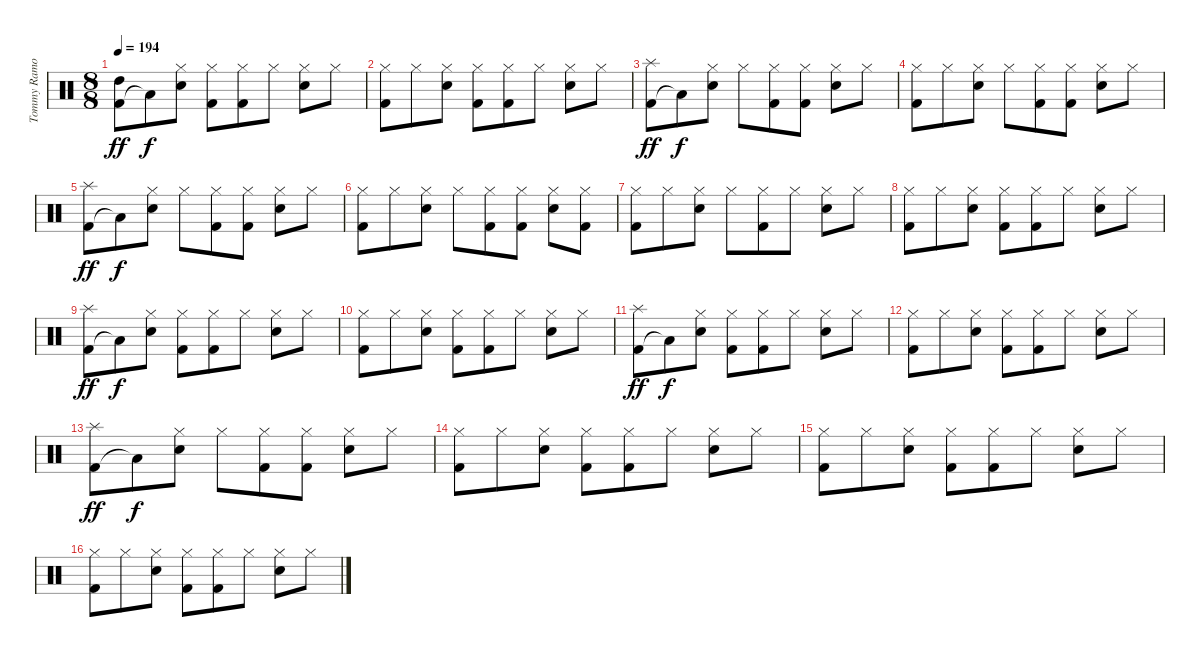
\track ("Tommy Ramone - Drums" "Tommy Ramo") {instrument percussion}
\staff {score}
\articulation defaults
\ts (8 8)
\tempo 194
\clef neutral
\ks c
("Kick (hit) 2" "High Tom (hit)").8{dy ff} "Low Floor Tom (hit)"{t}.8{dy f} ("Electric Snare (hit)" "Hi-Hat (closed)").8 ("Kick (hit) 2" "Hi-Hat (closed)").8 ("Kick (hit) 2" "Hi-Hat (closed)").8 "Hi-Hat (closed)".8 ("Electric Snare (hit)" "Hi-Hat (closed)").8 "Hi-Hat (closed)".8 |
("Kick (hit) 2" "Hi-Hat (closed)").8 "Hi-Hat (closed)".8 ("Electric Snare (hit)" "Hi-Hat (closed)").8 ("Kick (hit) 2" "Hi-Hat (closed)").8 ("Kick (hit) 2" "Hi-Hat (closed)").8 "Hi-Hat (closed)".8 ("Electric Snare (hit)" "Hi-Hat (closed)").8 "Hi-Hat (closed)".8 |
("Kick (hit) 2" "Splash (hit)").8{dy ff} "Low Floor Tom (hit)"{t}.8{dy f} ("Electric Snare (hit)" "Hi-Hat (closed)").8 "Hi-Hat (closed)".8 ("Kick (hit) 2" "Hi-Hat (closed)").8 ("Kick (hit) 2" "Hi-Hat (closed)").8 ("Electric Snare (hit)" "Hi-Hat (closed)").8 "Hi-Hat (closed)".8 |
("Kick (hit) 2" "Hi-Hat (closed)").8 "Hi-Hat (closed)".8 ("Electric Snare (hit)" "Hi-Hat (closed)").8 "Hi-Hat (closed)".8 ("Kick (hit) 2" "Hi-Hat (closed)").8 ("Kick (hit) 2" "Hi-Hat (closed)").8 ("Electric Snare (hit)" "Hi-Hat (closed)").8 "Hi-Hat (closed)".8 |
("Kick (hit) 2" "Splash (hit)").8{dy ff} "Low Floor Tom (hit)"{t}.8{dy f} ("Electric Snare (hit)" "Hi-Hat (closed)").8 "Hi-Hat (closed)".8 ("Kick (hit) 2" "Hi-Hat (closed)").8 ("Kick (hit) 2" "Hi-Hat (closed)").8 ("Electric Snare (hit)" "Hi-Hat (closed)").8 "Hi-Hat (closed)".8 |
("Kick (hit) 2" "Hi-Hat (closed)").8 "Hi-Hat (closed)".8 ("Electric Snare (hit)" "Hi-Hat (closed)").8 "Hi-Hat (closed)".8 ("Kick (hit) 2" "Hi-Hat (closed)").8 ("Kick (hit) 2" "Hi-Hat (closed)").8 ("Electric Snare (hit)" "Hi-Hat (closed)").8 ("Kick (hit) 2" "Hi-Hat (closed)").8 |
("Kick (hit) 2" "Hi-Hat (closed)").8 "Hi-Hat (closed)".8 ("Electric Snare (hit)" "Hi-Hat (closed)").8 "Hi-Hat (closed)".8 ("Kick (hit) 2" "Hi-Hat (closed)").8 "Hi-Hat (closed)".8 ("Electric Snare (hit)" "Hi-Hat (closed)").8 "Hi-Hat (closed)".8 |
("Kick (hit) 2" "Hi-Hat (closed)").8 "Hi-Hat (closed)".8 ("Electric Snare (hit)" "Hi-Hat (closed)").8 ("Kick (hit) 2" "Hi-Hat (closed)").8 ("Kick (hit) 2" "Hi-Hat (closed)").8 "Hi-Hat (closed)".8 ("Electric Snare (hit)" "Hi-Hat (closed)").8 "Hi-Hat (closed)".8 |
("Kick (hit) 2" "Splash (hit)").8{dy ff} "Low Floor Tom (hit)"{t}.8{dy f} ("Electric Snare (hit)" "Hi-Hat (closed)").8 ("Kick (hit) 2" "Hi-Hat (closed)").8 ("Kick (hit) 2" "Hi-Hat (closed)").8 "Hi-Hat (closed)".8 ("Electric Snare (hit)" "Hi-Hat (closed)").8 "Hi-Hat (closed)".8 |
("Kick (hit) 2" "Hi-Hat (closed)").8 "Hi-Hat (closed)".8 ("Electric Snare (hit)" "Hi-Hat (closed)").8 ("Kick (hit) 2" "Hi-Hat (closed)").8 ("Kick (hit) 2" "Hi-Hat (closed)").8 "Hi-Hat (closed)".8 ("Electric Snare (hit)" "Hi-Hat (closed)").8 "Hi-Hat (closed)".8 |
("Kick (hit) 2" "Splash (hit)").8{dy ff} "Low Floor Tom (hit)"{t}.8{dy f} ("Electric Snare (hit)" "Hi-Hat (closed)").8 ("Kick (hit) 2" "Hi-Hat (closed)").8 ("Kick (hit) 2" "Hi-Hat (closed)").8 "Hi-Hat (closed)".8 ("Electric Snare (hit)" "Hi-Hat (closed)").8 "Hi-Hat (closed)".8 |
("Kick (hit) 2" "Hi-Hat (closed)").8 "Hi-Hat (closed)".8 ("Electric Snare (hit)" "Hi-Hat (closed)").8 ("Kick (hit) 2" "Hi-Hat (closed)").8 ("Kick (hit) 2" "Hi-Hat (closed)").8 "Hi-Hat (closed)".8 ("Electric Snare (hit)" "Hi-Hat (closed)").8 "Hi-Hat (closed)".8 |
("Kick (hit) 2" "Splash (hit)").8{dy ff} "Low Floor Tom (hit)"{t}.8{dy f} ("Electric Snare (hit)" "Hi-Hat (closed)").8 "Hi-Hat (closed)".8 ("Kick (hit) 2" "Hi-Hat (closed)").8 ("Kick (hit) 2" "Hi-Hat (closed)").8 ("Electric Snare (hit)" "Hi-Hat (closed)").8 "Hi-Hat (closed)".8 |
("Kick (hit) 2" "Hi-Hat (closed)").8 "Hi-Hat (closed)".8 ("Electric Snare (hit)" "Hi-Hat (closed)").8 ("Kick (hit) 2" "Hi-Hat (closed)").8 ("Kick (hit) 2" "Hi-Hat (closed)").8 "Hi-Hat (closed)".8 ("Electric Snare (hit)" "Hi-Hat (closed)").8 "Hi-Hat (closed)".8 |
("Kick (hit) 2" "Hi-Hat (closed)").8 "Hi-Hat (closed)".8 ("Electric Snare (hit)" "Hi-Hat (closed)").8 ("Kick (hit) 2" "Hi-Hat (closed)").8 ("Kick (hit) 2" "Hi-Hat (closed)").8 "Hi-Hat (closed)".8 ("Electric Snare (hit)" "Hi-Hat (closed)").8 "Hi-Hat (closed)".8 |
("Kick (hit) 2" "Hi-Hat (closed)").8 "Hi-Hat (closed)".8 ("Electric Snare (hit)" "Hi-Hat (closed)").8 ("Kick (hit) 2" "Hi-Hat (closed)").8 ("Kick (hit) 2" "Hi-Hat (closed)").8 "Hi-Hat (closed)".8 ("Electric Snare (hit)" "Hi-Hat (closed)").8 "Hi-Hat (closed)".8
